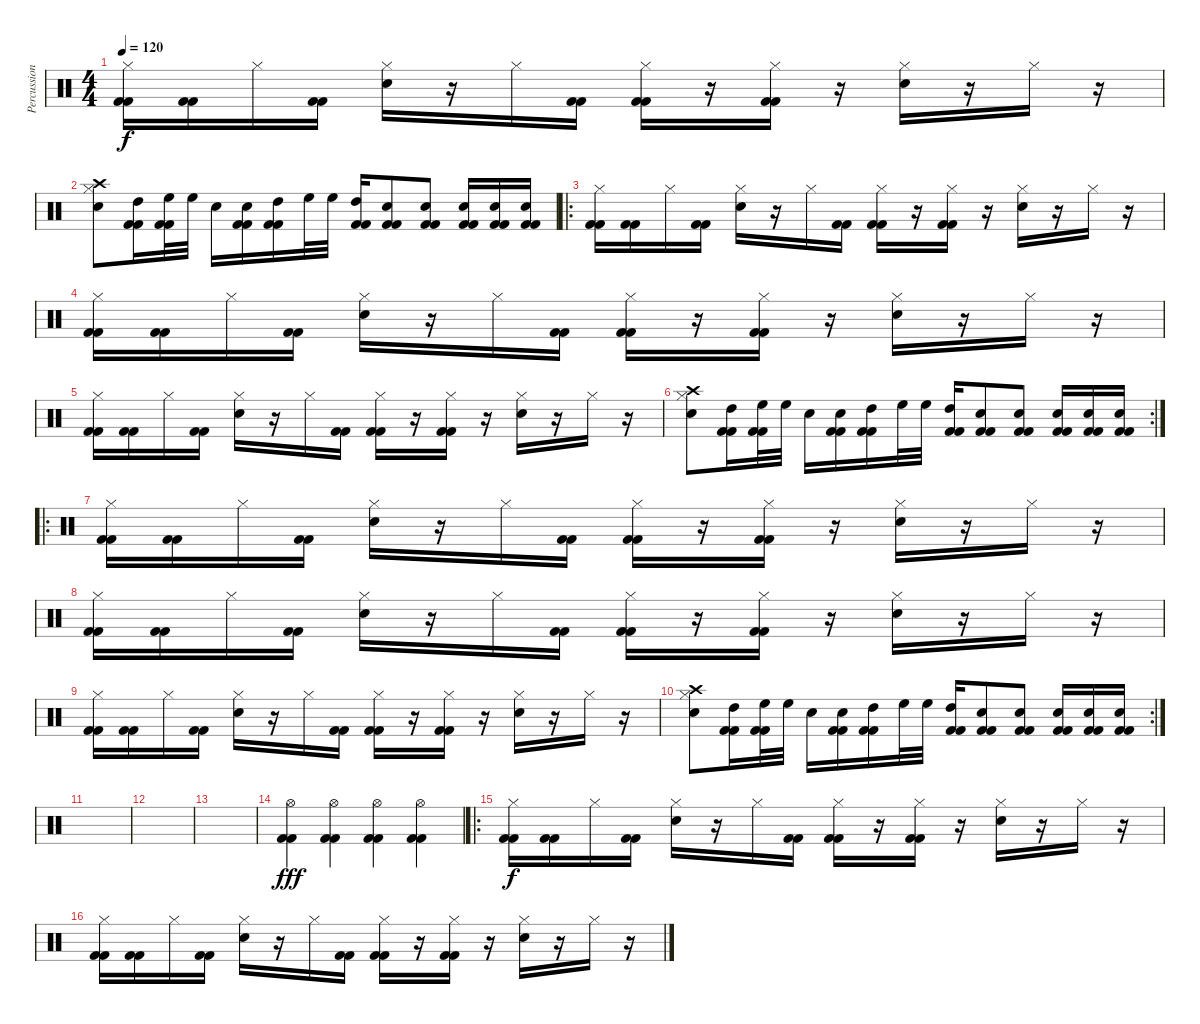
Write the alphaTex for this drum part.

\track ("Percussion" "Percussion") {instrument percussion}
\staff {score}
\articulation defaults
\ts (4 4)
\tempo 120
\clef neutral
\ks c
("Hi-Hat (closed)" "Kick (hit) 2" "Kick (hit) 2").16{dy f} ("Kick (hit) 2" "Kick (hit) 2").16 "Hi-Hat (closed)".16 ("Kick (hit) 2" "Kick (hit) 2").16 ("Hi-Hat (closed)" "Snare (hit) 2").16 r.16 "Hi-Hat (closed)".16 ("Kick (hit) 2" "Kick (hit) 2").16 ("Hi-Hat (closed)" "Kick (hit) 2" "Kick (hit) 2").16 r.16 ("Hi-Hat (closed)" "Kick (hit) 2" "Kick (hit) 2").16 r.16 ("Hi-Hat (closed)" "Snare (hit) 2").16 r.16 "Hi-Hat (closed)".16 r.16 |
("Hi-Hat (closed)" "Crash high (hit)" "Snare (hit) 2").8 ("High Tom (hit)" "Kick (hit) 2" "Kick (hit) 2").16 ("High Floor Tom (hit)" "Kick (hit) 2" "Kick (hit) 2").32 "High Floor Tom (hit)".32 "Snare (hit) 2".16 ("Snare (hit) 2" "Kick (hit) 2" "Kick (hit) 2").16 ("High Tom (hit)" "Kick (hit) 2" "Kick (hit) 2").16 "High Floor Tom (hit)".32 "High Floor Tom (hit)".32 ("High Tom (hit)" "Kick (hit) 2" "Kick (hit) 2").16 ("Snare (hit) 2" "Kick (hit) 2" "Kick (hit) 2").8 ("Snare (hit) 2" "Kick (hit) 2" "Kick (hit) 2").8 ("Snare (hit) 2" "Kick (hit) 2" "Kick (hit) 2").16 ("Snare (hit) 2" "Kick (hit) 2" "Kick (hit) 2").16 ("Snare (hit) 2" "Kick (hit) 2" "Kick (hit) 2").16 |
\ro
("Hi-Hat (closed)" "Kick (hit) 2" "Kick (hit) 2").16 ("Kick (hit) 2" "Kick (hit) 2").16 "Hi-Hat (closed)".16 ("Kick (hit) 2" "Kick (hit) 2").16 ("Hi-Hat (closed)" "Snare (hit) 2").16 r.16 "Hi-Hat (closed)".16 ("Kick (hit) 2" "Kick (hit) 2").16 ("Hi-Hat (closed)" "Kick (hit) 2" "Kick (hit) 2").16 r.16 ("Hi-Hat (closed)" "Kick (hit) 2" "Kick (hit) 2").16 r.16 ("Hi-Hat (closed)" "Snare (hit) 2").16 r.16 "Hi-Hat (closed)".16 r.16 |
("Hi-Hat (closed)" "Kick (hit) 2" "Kick (hit) 2").16 ("Kick (hit) 2" "Kick (hit) 2").16 "Hi-Hat (closed)".16 ("Kick (hit) 2" "Kick (hit) 2").16 ("Hi-Hat (closed)" "Snare (hit) 2").16 r.16 "Hi-Hat (closed)".16 ("Kick (hit) 2" "Kick (hit) 2").16 ("Hi-Hat (closed)" "Kick (hit) 2" "Kick (hit) 2").16 r.16 ("Hi-Hat (closed)" "Kick (hit) 2" "Kick (hit) 2").16 r.16 ("Hi-Hat (closed)" "Snare (hit) 2").16 r.16 "Hi-Hat (closed)".16 r.16 |
("Hi-Hat (closed)" "Kick (hit) 2" "Kick (hit) 2").16 ("Kick (hit) 2" "Kick (hit) 2").16 "Hi-Hat (closed)".16 ("Kick (hit) 2" "Kick (hit) 2").16 ("Hi-Hat (closed)" "Snare (hit) 2").16 r.16 "Hi-Hat (closed)".16 ("Kick (hit) 2" "Kick (hit) 2").16 ("Hi-Hat (closed)" "Kick (hit) 2" "Kick (hit) 2").16 r.16 ("Hi-Hat (closed)" "Kick (hit) 2" "Kick (hit) 2").16 r.16 ("Hi-Hat (closed)" "Snare (hit) 2").16 r.16 "Hi-Hat (closed)".16 r.16 |
\rc 2
("Hi-Hat (closed)" "Crash high (hit)" "Snare (hit) 2").8 ("High Tom (hit)" "Kick (hit) 2" "Kick (hit) 2").16 ("High Floor Tom (hit)" "Kick (hit) 2" "Kick (hit) 2").32 "High Floor Tom (hit)".32 "Snare (hit) 2".16 ("Snare (hit) 2" "Kick (hit) 2" "Kick (hit) 2").16 ("High Tom (hit)" "Kick (hit) 2" "Kick (hit) 2").16 "High Floor Tom (hit)".32 "High Floor Tom (hit)".32 ("High Tom (hit)" "Kick (hit) 2" "Kick (hit) 2").16 ("Snare (hit) 2" "Kick (hit) 2" "Kick (hit) 2").8 ("Snare (hit) 2" "Kick (hit) 2" "Kick (hit) 2").8 ("Snare (hit) 2" "Kick (hit) 2" "Kick (hit) 2").16 ("Snare (hit) 2" "Kick (hit) 2" "Kick (hit) 2").16 ("Snare (hit) 2" "Kick (hit) 2" "Kick (hit) 2").16 |
\ro
("Hi-Hat (closed)" "Kick (hit) 2" "Kick (hit) 2").16 ("Kick (hit) 2" "Kick (hit) 2").16 "Hi-Hat (closed)".16 ("Kick (hit) 2" "Kick (hit) 2").16 ("Hi-Hat (closed)" "Snare (hit) 2").16 r.16 "Hi-Hat (closed)".16 ("Kick (hit) 2" "Kick (hit) 2").16 ("Hi-Hat (closed)" "Kick (hit) 2" "Kick (hit) 2").16 r.16 ("Hi-Hat (closed)" "Kick (hit) 2" "Kick (hit) 2").16 r.16 ("Hi-Hat (closed)" "Snare (hit) 2").16 r.16 "Hi-Hat (closed)".16 r.16 |
("Hi-Hat (closed)" "Kick (hit) 2" "Kick (hit) 2").16 ("Kick (hit) 2" "Kick (hit) 2").16 "Hi-Hat (closed)".16 ("Kick (hit) 2" "Kick (hit) 2").16 ("Hi-Hat (closed)" "Snare (hit) 2").16 r.16 "Hi-Hat (closed)".16 ("Kick (hit) 2" "Kick (hit) 2").16 ("Hi-Hat (closed)" "Kick (hit) 2" "Kick (hit) 2").16 r.16 ("Hi-Hat (closed)" "Kick (hit) 2" "Kick (hit) 2").16 r.16 ("Hi-Hat (closed)" "Snare (hit) 2").16 r.16 "Hi-Hat (closed)".16 r.16 |
("Hi-Hat (closed)" "Kick (hit) 2" "Kick (hit) 2").16 ("Kick (hit) 2" "Kick (hit) 2").16 "Hi-Hat (closed)".16 ("Kick (hit) 2" "Kick (hit) 2").16 ("Hi-Hat (closed)" "Snare (hit) 2").16 r.16 "Hi-Hat (closed)".16 ("Kick (hit) 2" "Kick (hit) 2").16 ("Hi-Hat (closed)" "Kick (hit) 2" "Kick (hit) 2").16 r.16 ("Hi-Hat (closed)" "Kick (hit) 2" "Kick (hit) 2").16 r.16 ("Hi-Hat (closed)" "Snare (hit) 2").16 r.16 "Hi-Hat (closed)".16 r.16 |
\rc 2
("Hi-Hat (closed)" "Crash high (hit)" "Snare (hit) 2").8 ("High Tom (hit)" "Kick (hit) 2" "Kick (hit) 2").16 ("High Floor Tom (hit)" "Kick (hit) 2" "Kick (hit) 2").32 "High Floor Tom (hit)".32 "Snare (hit) 2".16 ("Snare (hit) 2" "Kick (hit) 2" "Kick (hit) 2").16 ("High Tom (hit)" "Kick (hit) 2" "Kick (hit) 2").16 "High Floor Tom (hit)".32 "High Floor Tom (hit)".32 ("High Tom (hit)" "Kick (hit) 2" "Kick (hit) 2").16 ("Snare (hit) 2" "Kick (hit) 2" "Kick (hit) 2").8 ("Snare (hit) 2" "Kick (hit) 2" "Kick (hit) 2").8 ("Snare (hit) 2" "Kick (hit) 2" "Kick (hit) 2").16 ("Snare (hit) 2" "Kick (hit) 2" "Kick (hit) 2").16 ("Snare (hit) 2" "Kick (hit) 2" "Kick (hit) 2").16 |
|
|
|
("Hi-Hat (open)" "Kick (hit) 2" "Kick (hit) 2").4{dy fff} ("Hi-Hat (open)" "Kick (hit) 2" "Kick (hit) 2").4 ("Hi-Hat (open)" "Kick (hit) 2" "Kick (hit) 2").4 ("Hi-Hat (open)" "Kick (hit) 2" "Kick (hit) 2").4 |
\ro
("Hi-Hat (closed)" "Kick (hit) 2" "Kick (hit) 2").16{dy f} ("Kick (hit) 2" "Kick (hit) 2").16 "Hi-Hat (closed)".16 ("Kick (hit) 2" "Kick (hit) 2").16 ("Hi-Hat (closed)" "Snare (hit) 2").16 r.16 "Hi-Hat (closed)".16 ("Kick (hit) 2" "Kick (hit) 2").16 ("Hi-Hat (closed)" "Kick (hit) 2" "Kick (hit) 2").16 r.16 ("Hi-Hat (closed)" "Kick (hit) 2" "Kick (hit) 2").16 r.16 ("Hi-Hat (closed)" "Snare (hit) 2").16 r.16 "Hi-Hat (closed)".16 r.16 |
("Hi-Hat (closed)" "Kick (hit) 2" "Kick (hit) 2").16 ("Kick (hit) 2" "Kick (hit) 2").16 "Hi-Hat (closed)".16 ("Kick (hit) 2" "Kick (hit) 2").16 ("Hi-Hat (closed)" "Snare (hit) 2").16 r.16 "Hi-Hat (closed)".16 ("Kick (hit) 2" "Kick (hit) 2").16 ("Hi-Hat (closed)" "Kick (hit) 2" "Kick (hit) 2").16 r.16 ("Hi-Hat (closed)" "Kick (hit) 2" "Kick (hit) 2").16 r.16 ("Hi-Hat (closed)" "Snare (hit) 2").16 r.16 "Hi-Hat (closed)".16 r.16
